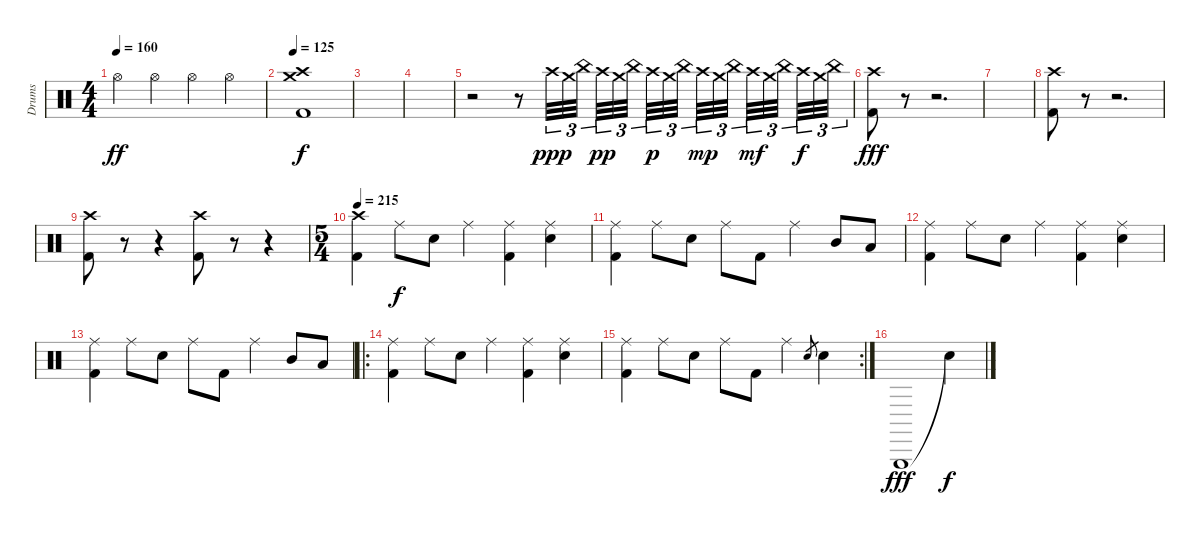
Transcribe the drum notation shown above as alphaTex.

\track ("Drums" "Drums") {instrument percussion}
\staff {score}
\articulation defaults
\ts (4 4)
\tempo 160
\clef neutral
\ks c "Hi-Hat (open)".4{dy ff} "Hi-Hat (open)".4 "Hi-Hat (open)".4 "Hi-Hat (open)".4
|
\tempo 125
("Crash high (hit)" "Crash medium (hit)" "Kick (hit) 2").1{dy f} |
|
|
r.2 r.8 "Crash high (hit)".32{tu (3 2) dy ppp} "Crash medium (hit)".32{tu (3 2)} "China (hit)".32{tu (3 2) beam splitsecondary} "Crash high (hit)".32{tu (3 2) dy pp} "Crash medium (hit)".32{tu (3 2)} "China (hit)".32{tu (3 2)} "Crash high (hit)".32{tu (3 2) dy p} "Crash medium (hit)".32{tu (3 2)} "China (hit)".32{tu (3 2) beam splitsecondary} "Crash high (hit)".32{tu (3 2) dy mp} "Crash medium (hit)".32{tu (3 2)} "China (hit)".32{tu (3 2) beam splitsecondary} "Crash high (hit)".32{tu (3 2) dy mf} "Crash medium (hit)".32{tu (3 2)} "China (hit)".32{tu (3 2) beam splitsecondary} "Crash high (hit)".32{tu (3 2) dy f} "Crash medium (hit)".32{tu (3 2)} "China (hit)".32{tu (3 2)} |
("Crash high (hit)" "Kick (hit) 2").8{dy fff} r.8{volume 0} r.2{d} |
|
("Crash high (hit)" "Kick (hit) 2").8{volume 13} r.8{volume 0} r.2{d} |
("Crash high (hit)" "Kick (hit) 2").8{volume 13} r.8{volume 0} r.4 ("Crash high (hit)" "Kick (hit) 2").8{volume 13} r.8{volume 0} r.4 |
\ts (5 4)
\tempo 215
("Crash high (hit)" "Kick (hit) 2").4{volume 13} "Ride (middle)".8{dy f} "Electric Snare (hit)".8 "Ride (middle)".4 ("Ride (middle)" "Kick (hit) 2").4 ("Ride (middle)" "Electric Snare (hit)").4 |
("Ride (middle)" "Kick (hit) 2").4 "Ride (middle)".8 "Electric Snare (hit)".8 "Ride (middle)".8 "Kick (hit) 2".8 "Ride (middle)".4 "Mid Tom (hit)".8 "Low Tom (hit)".8 |
("Ride (middle)" "Kick (hit) 2").4 "Ride (middle)".8 "Electric Snare (hit)".8 "Ride (middle)".4 ("Ride (middle)" "Kick (hit) 2").4 ("Ride (middle)" "Electric Snare (hit)").4 |
("Ride (middle)" "Kick (hit) 2").4 "Ride (middle)".8 "Electric Snare (hit)".8 "Ride (middle)".8 "Kick (hit) 2".8 "Ride (middle)".4 "Mid Tom (hit)".8 "Low Tom (hit)".8 |
\ro
("Ride (middle)" "Kick (hit) 2").4 "Ride (middle)".8 "Electric Snare (hit)".8 "Ride (middle)".4 ("Ride (middle)" "Kick (hit) 2").4 ("Ride (middle)" "Electric Snare (hit)").4 |
\rc 2
("Ride (middle)" "Kick (hit) 2").4 "Ride (middle)".8 "Electric Snare (hit)".8 "Ride (middle)".8 "Kick (hit) 2".8 "Ride (middle)".4 "Electric Snare (hit)".8{gr} "Electric Snare (hit)".4 |
"Triangle (hit)".1{dy fff} "Snare (hit)"{t}.4{dy f}
